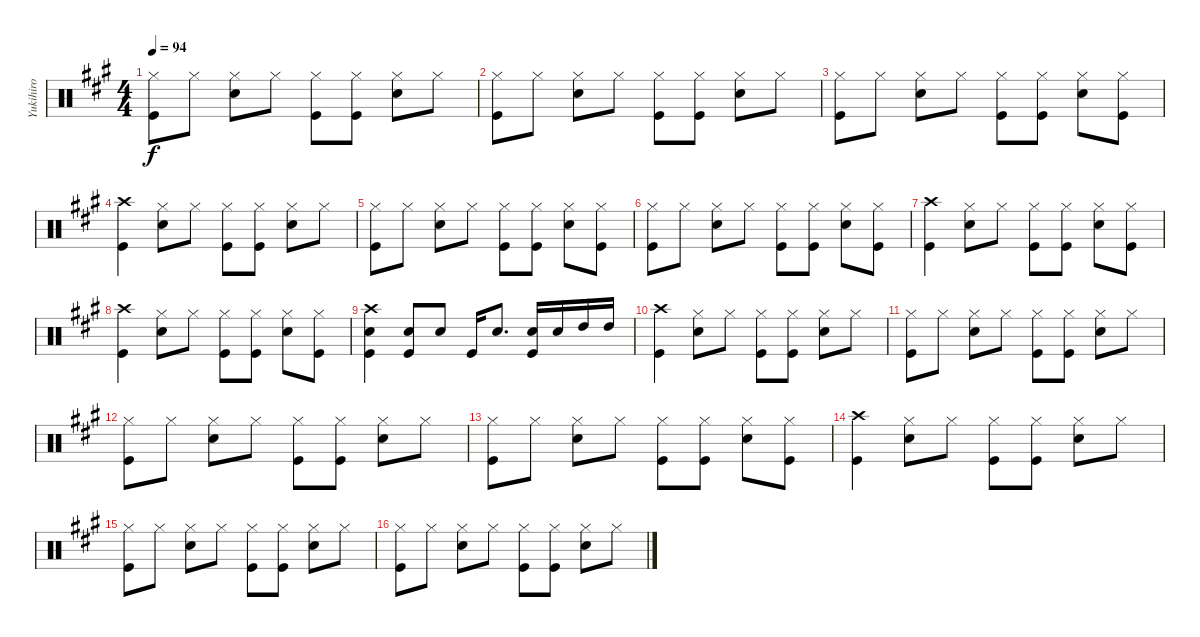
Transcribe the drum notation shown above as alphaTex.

\track ("Yukihiro" "Yukihiro") {instrument percussion}
\staff {score}
\articulation defaults
\ts (4 4)
\tempo 94
\clef neutral
\ks a
("Hi-Hat (closed)" "Kick (hit)").8{dy f} "Hi-Hat (closed)".8 ("Hi-Hat (closed)" "Snare (hit) 2").8 "Hi-Hat (closed)".8 ("Hi-Hat (closed)" "Kick (hit)").8 ("Hi-Hat (closed)" "Kick (hit)").8 ("Hi-Hat (closed)" "Snare (hit) 2").8 "Hi-Hat (closed)".8 |
("Hi-Hat (closed)" "Kick (hit)").8 "Hi-Hat (closed)".8 ("Hi-Hat (closed)" "Snare (hit) 2").8 "Hi-Hat (closed)".8 ("Hi-Hat (closed)" "Kick (hit)").8 ("Hi-Hat (closed)" "Kick (hit)").8 ("Hi-Hat (closed)" "Snare (hit) 2").8 "Hi-Hat (closed)".8 |
("Hi-Hat (closed)" "Kick (hit)").8 "Hi-Hat (closed)".8 ("Hi-Hat (closed)" "Snare (hit) 2").8 "Hi-Hat (closed)".8 ("Hi-Hat (closed)" "Kick (hit)").8 ("Hi-Hat (closed)" "Kick (hit)").8 ("Hi-Hat (closed)" "Snare (hit) 2").8 ("Hi-Hat (closed)" "Kick (hit)").8 |
("Kick (hit)" "Crash high (hit)").4 ("Snare (hit) 2" "Hi-Hat (closed)").8 "Hi-Hat (closed)".8 ("Kick (hit)" "Hi-Hat (closed)").8 ("Kick (hit)" "Hi-Hat (closed)").8 ("Hi-Hat (closed)" "Snare (hit) 2").8 "Hi-Hat (closed)".8 |
("Hi-Hat (closed)" "Kick (hit)").8 "Hi-Hat (closed)".8 ("Hi-Hat (closed)" "Snare (hit) 2").8 "Hi-Hat (closed)".8 ("Hi-Hat (closed)" "Kick (hit)").8 ("Hi-Hat (closed)" "Kick (hit)").8 ("Hi-Hat (closed)" "Snare (hit) 2").8 ("Hi-Hat (closed)" "Kick (hit)").8 |
("Hi-Hat (closed)" "Kick (hit)").8 "Hi-Hat (closed)".8 ("Hi-Hat (closed)" "Snare (hit) 2").8 "Hi-Hat (closed)".8 ("Hi-Hat (closed)" "Kick (hit)").8 ("Hi-Hat (closed)" "Kick (hit)").8 ("Hi-Hat (closed)" "Snare (hit) 2").8 ("Hi-Hat (closed)" "Kick (hit)").8 |
("Kick (hit)" "Crash high (hit)").4 ("Snare (hit) 2" "Hi-Hat (closed)").8 "Hi-Hat (closed)".8 ("Kick (hit)" "Hi-Hat (closed)").8 ("Kick (hit)" "Hi-Hat (closed)").8 ("Hi-Hat (closed)" "Snare (hit) 2").8 ("Hi-Hat (closed)" "Kick (hit)").8 |
("Kick (hit)" "Crash high (hit)").4 ("Snare (hit) 2" "Hi-Hat (closed)").8 "Hi-Hat (closed)".8 ("Kick (hit)" "Hi-Hat (closed)").8 ("Kick (hit)" "Hi-Hat (closed)").8 ("Hi-Hat (closed)" "Snare (hit) 2").8 ("Hi-Hat (closed)" "Kick (hit)").8 |
("Crash high (hit)" "Snare (hit) 2" "Kick (hit)").4 ("Kick (hit)" "Snare (hit) 2").8 "Snare (hit) 2".8 "Kick (hit)".16 "Snare (hit) 2".8{d} ("Kick (hit)" "Snare (hit) 2").16 "Snare (hit) 2".16 "High Tom (hit)".16 "High Tom (hit)".16 |
("Crash high (hit)" "Kick (hit)").4 ("Snare (hit) 2" "Hi-Hat (closed)").8 "Hi-Hat (closed)".8 ("Hi-Hat (closed)" "Kick (hit)").8 ("Hi-Hat (closed)" "Kick (hit)").8 ("Hi-Hat (closed)" "Snare (hit) 2").8 "Hi-Hat (closed)".8 |
("Hi-Hat (closed)" "Kick (hit)").8 "Hi-Hat (closed)".8 ("Hi-Hat (closed)" "Snare (hit) 2").8 "Hi-Hat (closed)".8 ("Hi-Hat (closed)" "Kick (hit)").8 ("Hi-Hat (closed)" "Kick (hit)").8 ("Hi-Hat (closed)" "Snare (hit) 2").8 "Hi-Hat (closed)".8 |
("Hi-Hat (closed)" "Kick (hit)").8 "Hi-Hat (closed)".8 ("Hi-Hat (closed)" "Snare (hit) 2").8 "Hi-Hat (closed)".8 ("Hi-Hat (closed)" "Kick (hit)").8 ("Hi-Hat (closed)" "Kick (hit)").8 ("Hi-Hat (closed)" "Snare (hit) 2").8 "Hi-Hat (closed)".8 |
("Hi-Hat (closed)" "Kick (hit)").8 "Hi-Hat (closed)".8 ("Hi-Hat (closed)" "Snare (hit) 2").8 "Hi-Hat (closed)".8 ("Hi-Hat (closed)" "Kick (hit)").8 ("Hi-Hat (closed)" "Kick (hit)").8 ("Hi-Hat (closed)" "Snare (hit) 2").8 ("Hi-Hat (closed)" "Kick (hit)").8 |
("Crash high (hit)" "Kick (hit)").4 ("Snare (hit) 2" "Hi-Hat (closed)").8 "Hi-Hat (closed)".8 ("Hi-Hat (closed)" "Kick (hit)").8 ("Hi-Hat (closed)" "Kick (hit)").8 ("Hi-Hat (closed)" "Snare (hit) 2").8 "Hi-Hat (closed)".8 |
("Hi-Hat (closed)" "Kick (hit)").8 "Hi-Hat (closed)".8 ("Hi-Hat (closed)" "Snare (hit) 2").8 "Hi-Hat (closed)".8 ("Hi-Hat (closed)" "Kick (hit)").8 ("Hi-Hat (closed)" "Kick (hit)").8 ("Hi-Hat (closed)" "Snare (hit) 2").8 "Hi-Hat (closed)".8 |
("Hi-Hat (closed)" "Kick (hit)").8 "Hi-Hat (closed)".8 ("Hi-Hat (closed)" "Snare (hit) 2").8 "Hi-Hat (closed)".8 ("Hi-Hat (closed)" "Kick (hit)").8 ("Hi-Hat (closed)" "Kick (hit)").8 ("Hi-Hat (closed)" "Snare (hit) 2").8 "Hi-Hat (closed)".8
